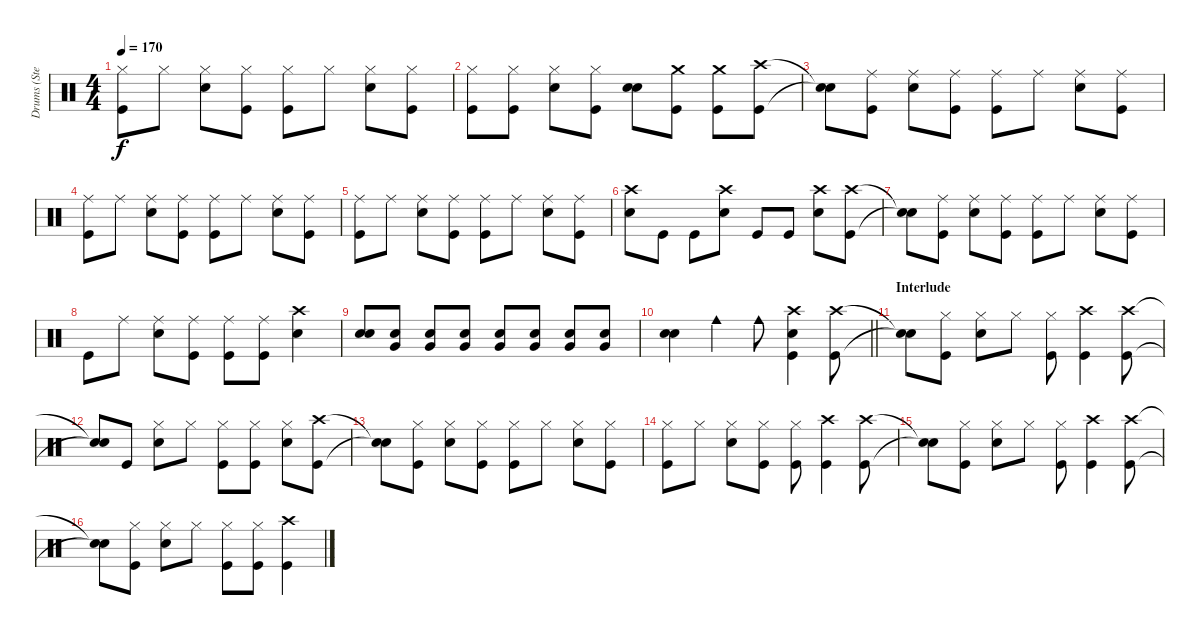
\track ("Drums (Steven)" "Drums (Ste") {instrument percussion}
\staff {score}
\articulation defaults
\ts (4 4)
\tempo 170
\clef neutral
\ks c
("Hi-Hat (closed)" "Kick (hit)").8{dy f} "Hi-Hat (closed)".8 ("Hi-Hat (closed)" "Snare (hit) 2").8 ("Hi-Hat (closed)" "Kick (hit)").8 ("Hi-Hat (closed)" "Kick (hit)").8 "Hi-Hat (closed)".8 ("Hi-Hat (closed)" "Snare (hit) 2").8 ("Hi-Hat (closed)" "Kick (hit)").8 |
("Hi-Hat (closed)" "Kick (hit)").8 ("Hi-Hat (closed)" "Kick (hit)").8 ("Hi-Hat (closed)" "Snare (hit) 2").8 ("Hi-Hat (closed)" "Kick (hit)").8 ("Snare (hit) 2" "Snare (hit) 2").8 ("Crash medium (hit)" "Kick (hit)").8 ("Crash medium (hit)" "Kick (hit)").8 ("Crash high (hit)" "Kick (hit)").8 |
("Snare (hit)"{t} "Snare (hit)"{t}).8 ("Ride (middle)" "Kick (hit)").8 ("Ride (middle)" "Snare (hit) 2").8 ("Ride (middle)" "Kick (hit)").8 ("Ride (middle)" "Kick (hit)").8 "Ride (middle)".8 ("Ride (middle)" "Snare (hit) 2").8 ("Ride (middle)" "Kick (hit)").8 |
("Ride (middle)" "Kick (hit)").8 "Ride (middle)".8 ("Ride (middle)" "Snare (hit) 2").8 ("Ride (middle)" "Kick (hit)").8 ("Ride (middle)" "Kick (hit)").8 "Ride (middle)".8 ("Ride (middle)" "Snare (hit) 2").8 ("Ride (middle)" "Kick (hit)").8 |
("Ride (middle)" "Kick (hit)").8 "Ride (middle)".8 ("Ride (middle)" "Snare (hit) 2").8 ("Ride (middle)" "Kick (hit)").8 ("Ride (middle)" "Kick (hit)").8 "Ride (middle)".8 ("Ride (middle)" "Snare (hit) 2").8 ("Ride (middle)" "Kick (hit)").8 |
("Crash high (hit)" "Snare (hit) 2").8 "Kick (hit)".8 "Kick (hit)".8 ("Crash high (hit)" "Snare (hit) 2").8 "Kick (hit)".8 "Kick (hit)".8 ("Crash high (hit)" "Snare (hit) 2").8 ("Crash high (hit)" "Kick (hit)").8 |
("Snare (hit)"{t} "Snare (hit)"{t}).8 ("Ride (middle)" "Kick (hit)").8 ("Ride (middle)" "Snare (hit) 2").8 ("Ride (middle)" "Kick (hit)").8 ("Ride (middle)" "Kick (hit)").8 "Ride (middle)".8 ("Ride (middle)" "Snare (hit) 2").8 ("Ride (middle)" "Kick (hit)").8 |
"Kick (hit)".8 "Ride (middle)".8 ("Ride (middle)" "Snare (hit) 2").8 ("Ride (middle)" "Kick (hit)").8 ("Ride (middle)" "Kick (hit)").8 ("Ride (middle)" "Kick (hit)").8 ("Crash high (hit)" "Snare (hit) 2").4 |
("Snare (hit) 2" "Snare (hit) 2").8 ("Snare (hit) 2" "Very Low Tom (hit)").8 ("Snare (hit) 2" "Very Low Tom (hit)").8 ("Snare (hit) 2" "Very Low Tom (hit)").8 ("Snare (hit) 2" "Very Low Tom (hit)").8 ("Snare (hit) 2" "Very Low Tom (hit)").8 ("Snare (hit) 2" "Very Low Tom (hit)").8 ("Snare (hit) 2" "Very Low Tom (hit)").8 |
\barLineRight lightlight
("Snare (hit) 2" "Snare (hit) 2").4 "Cowbell medium (hit)".4 "Cowbell medium (hit)".8 ("Crash high (hit)" "Kick (hit)" "Snare (hit)").4 ("Crash high (hit)" "Kick (hit)").8 |
\section ("" "Interlude")
("Snare (hit)"{t} "Snare (hit)"{t}).8 ("Hi-Hat (closed)" "Kick (hit)").8 ("Hi-Hat (closed)" "Snare (hit) 2").8 "Hi-Hat (closed)".8 ("Hi-Hat (closed)" "Kick (hit)").8 ("Crash high (hit)" "Kick (hit)").4 ("Crash high (hit)" "Kick (hit)").8 |
("Snare (hit)"{t} "Snare (hit)"{t}).8 "Kick (hit)".8 ("Hi-Hat (closed)" "Snare (hit) 2").8 "Hi-Hat (closed)".8 ("Hi-Hat (closed)" "Kick (hit)").8 ("Hi-Hat (closed)" "Kick (hit)").8 ("Hi-Hat (closed)" "Snare (hit) 2").8 ("Crash high (hit)" "Kick (hit)").8 |
("Snare (hit)"{t} "Snare (hit)"{t}).8 ("Hi-Hat (closed)" "Kick (hit)").8 ("Hi-Hat (closed)" "Snare (hit) 2").8 ("Hi-Hat (closed)" "Kick (hit)").8 ("Hi-Hat (closed)" "Kick (hit)").8 "Hi-Hat (closed)".8 ("Hi-Hat (closed)" "Snare (hit) 2").8 ("Hi-Hat (closed)" "Kick (hit)").8 |
("Hi-Hat (closed)" "Kick (hit)").8 "Hi-Hat (closed)".8 ("Hi-Hat (closed)" "Snare (hit) 2").8 ("Hi-Hat (closed)" "Kick (hit)").8 ("Hi-Hat (closed)" "Kick (hit)").8 ("Crash high (hit)" "Kick (hit)").4 ("Crash high (hit)" "Kick (hit)").8 |
("Snare (hit)"{t} "Snare (hit)"{t}).8 ("Hi-Hat (closed)" "Kick (hit)").8 ("Hi-Hat (closed)" "Snare (hit) 2").8 "Hi-Hat (closed)".8 ("Hi-Hat (closed)" "Kick (hit)").8 ("Crash high (hit)" "Kick (hit)").4 ("Crash high (hit)" "Kick (hit)").8 |
("Snare (hit)"{t} "Snare (hit)"{t}).8 ("Hi-Hat (closed)" "Kick (hit)").8 ("Hi-Hat (closed)" "Snare (hit) 2").8 "Hi-Hat (closed)".8 ("Hi-Hat (closed)" "Kick (hit)").8 ("Hi-Hat (closed)" "Kick (hit)").8 ("Crash high (hit)" "Kick (hit)").4
